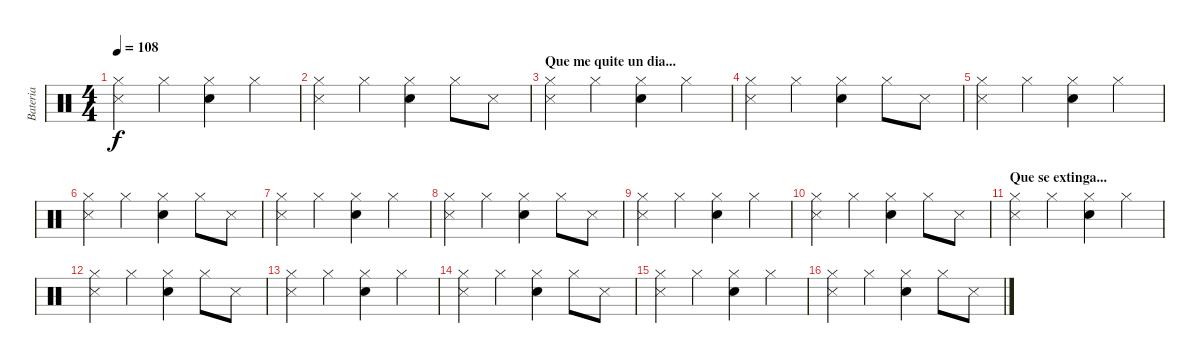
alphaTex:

\track ("Bateria" "Bateria") {instrument percussion}
\staff {score}
\articulation defaults
\ts (4 4)
\tempo 108
\clef neutral
\ks c
("Hi-Hat (closed)" "Snare (side stick) 3").4{dy f} "Hi-Hat (closed)".4 ("Snare (hit) 2" "Hi-Hat (closed)").4 "Hi-Hat (closed)".4 |
("Hi-Hat (closed)" "Snare (side stick) 3").4 "Hi-Hat (closed)".4 ("Snare (hit) 2" "Hi-Hat (closed)").4 "Hi-Hat (closed)".8 "Snare (side stick) 3".8 |
\section ("" "Que me quite un dia...")
("Hi-Hat (closed)" "Snare (side stick) 3").4 "Hi-Hat (closed)".4 ("Snare (hit) 2" "Hi-Hat (closed)").4 "Hi-Hat (closed)".4 |
("Hi-Hat (closed)" "Snare (side stick) 3").4 "Hi-Hat (closed)".4 ("Snare (hit) 2" "Hi-Hat (closed)").4 "Hi-Hat (closed)".8 "Snare (side stick) 3".8 |
("Hi-Hat (closed)" "Snare (side stick) 3").4 "Hi-Hat (closed)".4 ("Snare (hit) 2" "Hi-Hat (closed)").4 "Hi-Hat (closed)".4 |
("Hi-Hat (closed)" "Snare (side stick) 3").4 "Hi-Hat (closed)".4 ("Snare (hit) 2" "Hi-Hat (closed)").4 "Hi-Hat (closed)".8 "Snare (side stick) 3".8 |
("Hi-Hat (closed)" "Snare (side stick) 3").4 "Hi-Hat (closed)".4 ("Snare (hit) 2" "Hi-Hat (closed)").4 "Hi-Hat (closed)".4 |
("Hi-Hat (closed)" "Snare (side stick) 3").4 "Hi-Hat (closed)".4 ("Snare (hit) 2" "Hi-Hat (closed)").4 "Hi-Hat (closed)".8 "Snare (side stick) 3".8 |
("Hi-Hat (closed)" "Snare (side stick) 3").4 "Hi-Hat (closed)".4 ("Snare (hit) 2" "Hi-Hat (closed)").4 "Hi-Hat (closed)".4 |
("Hi-Hat (closed)" "Snare (side stick) 3").4 "Hi-Hat (closed)".4 ("Snare (hit) 2" "Hi-Hat (closed)").4 "Hi-Hat (closed)".8 "Snare (side stick) 3".8 |
\section ("" "Que se extinga...")
("Hi-Hat (closed)" "Snare (side stick) 3").4 "Hi-Hat (closed)".4 ("Snare (hit) 2" "Hi-Hat (closed)").4 "Hi-Hat (closed)".4 |
("Hi-Hat (closed)" "Snare (side stick) 3").4 "Hi-Hat (closed)".4 ("Snare (hit) 2" "Hi-Hat (closed)").4 "Hi-Hat (closed)".8 "Snare (side stick) 3".8 |
("Hi-Hat (closed)" "Snare (side stick) 3").4 "Hi-Hat (closed)".4 ("Snare (hit) 2" "Hi-Hat (closed)").4 "Hi-Hat (closed)".4 |
("Hi-Hat (closed)" "Snare (side stick) 3").4 "Hi-Hat (closed)".4 ("Snare (hit) 2" "Hi-Hat (closed)").4 "Hi-Hat (closed)".8 "Snare (side stick) 3".8 |
("Hi-Hat (closed)" "Snare (side stick) 3").4 "Hi-Hat (closed)".4 ("Snare (hit) 2" "Hi-Hat (closed)").4 "Hi-Hat (closed)".4 |
("Hi-Hat (closed)" "Snare (side stick) 3").4 "Hi-Hat (closed)".4 ("Snare (hit) 2" "Hi-Hat (closed)").4 "Hi-Hat (closed)".8 "Snare (side stick) 3".8
